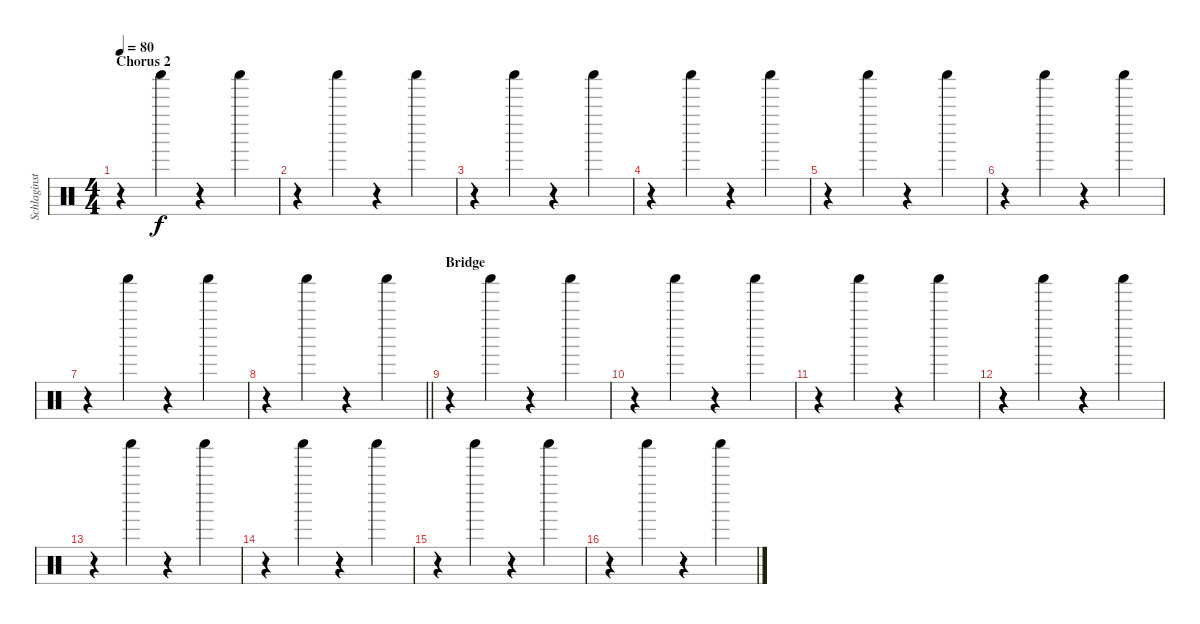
\track ("Schlaginstrumente - Auswahl" "Schlaginst") {instrument percussion}
\staff {score}
\articulation defaults
\ts (4 4)
\section ("" "Chorus 2")
\tempo 80
\clef neutral
\ks c
r.4{dy f} "Shaker (hit)".4 r.4 "Shaker (hit)".4 |
r.4 "Shaker (hit)".4 r.4 "Shaker (hit)".4 |
r.4 "Shaker (hit)".4 r.4 "Shaker (hit)".4 |
r.4 "Shaker (hit)".4 r.4 "Shaker (hit)".4 |
r.4 "Shaker (hit)".4 r.4 "Shaker (hit)".4 |
r.4 "Shaker (hit)".4 r.4 "Shaker (hit)".4 |
r.4 "Shaker (hit)".4 r.4 "Shaker (hit)".4 |
\barLineRight lightlight
r.4 "Shaker (hit)".4 r.4 "Shaker (hit)".4 |
\section ("" "Bridge")
r.4 "Shaker (hit)".4 r.4 "Shaker (hit)".4 |
r.4 "Shaker (hit)".4 r.4 "Shaker (hit)".4 |
r.4 "Shaker (hit)".4 r.4 "Shaker (hit)".4 |
r.4 "Shaker (hit)".4 r.4 "Shaker (hit)".4 |
r.4 "Shaker (hit)".4 r.4 "Shaker (hit)".4 |
r.4 "Shaker (hit)".4 r.4 "Shaker (hit)".4 |
r.4 "Shaker (hit)".4 r.4 "Shaker (hit)".4 |
r.4 "Shaker (hit)".4 r.4 "Shaker (hit)".4
